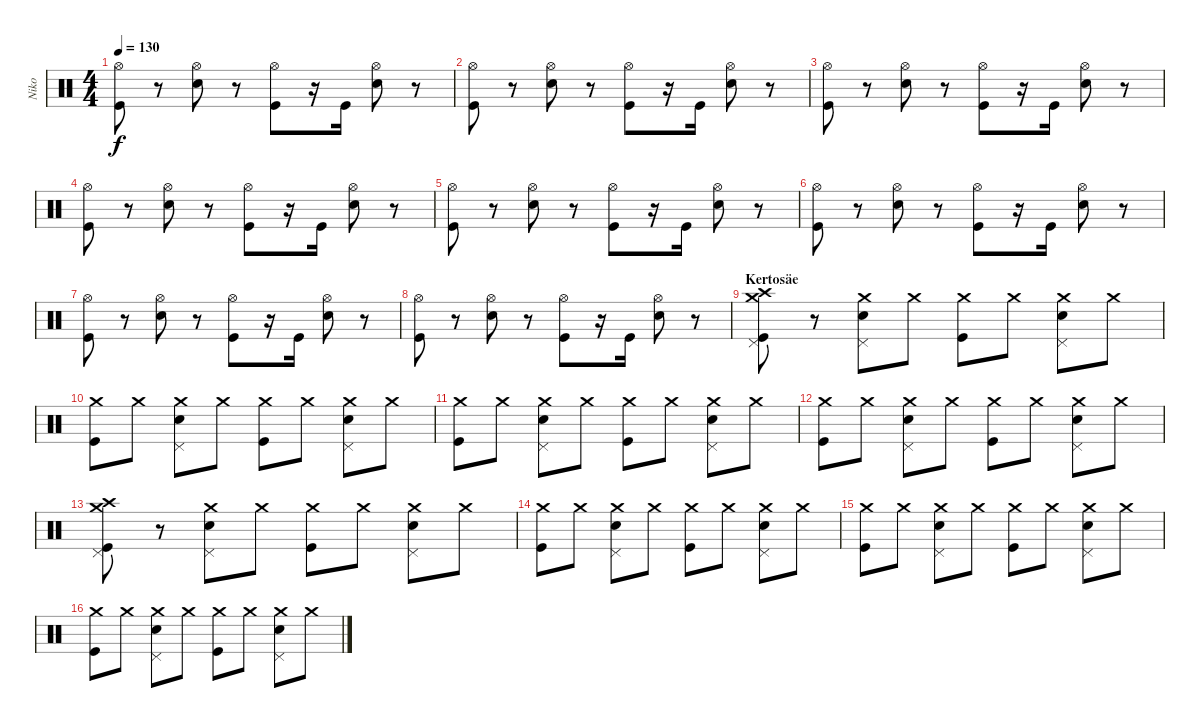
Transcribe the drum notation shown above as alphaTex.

\track ("Niko" "Niko") {instrument percussion}
\staff {score}
\articulation defaults
\ts (4 4)
\tempo 130
\clef neutral
\ks c
("Kick (hit)" "Hi-Hat (open)").8{dy f} r.8 ("Snare (hit) 2" "Hi-Hat (open)").8 r.8 ("Kick (hit)" "Hi-Hat (open)").8 r.16 "Kick (hit)".16 ("Snare (hit) 2" "Hi-Hat (open)").8 r.8 |
("Kick (hit)" "Hi-Hat (open)").8 r.8 ("Snare (hit) 2" "Hi-Hat (open)").8 r.8 ("Kick (hit)" "Hi-Hat (open)").8 r.16 "Kick (hit)".16 ("Snare (hit) 2" "Hi-Hat (open)").8 r.8 |
("Kick (hit)" "Hi-Hat (open)").8 r.8 ("Snare (hit) 2" "Hi-Hat (open)").8 r.8 ("Kick (hit)" "Hi-Hat (open)").8 r.16 "Kick (hit)".16 ("Snare (hit) 2" "Hi-Hat (open)").8 r.8 |
("Kick (hit)" "Hi-Hat (open)").8 r.8 ("Snare (hit) 2" "Hi-Hat (open)").8 r.8 ("Kick (hit)" "Hi-Hat (open)").8 r.16 "Kick (hit)".16 ("Snare (hit) 2" "Hi-Hat (open)").8 r.8 |
("Kick (hit)" "Hi-Hat (open)").8 r.8 ("Snare (hit) 2" "Hi-Hat (open)").8 r.8 ("Kick (hit)" "Hi-Hat (open)").8 r.16 "Kick (hit)".16 ("Snare (hit) 2" "Hi-Hat (open)").8 r.8 |
("Kick (hit)" "Hi-Hat (open)").8 r.8 ("Snare (hit) 2" "Hi-Hat (open)").8 r.8 ("Kick (hit)" "Hi-Hat (open)").8 r.16 "Kick (hit)".16 ("Snare (hit) 2" "Hi-Hat (open)").8 r.8 |
("Kick (hit)" "Hi-Hat (open)").8 r.8 ("Snare (hit) 2" "Hi-Hat (open)").8 r.8 ("Kick (hit)" "Hi-Hat (open)").8 r.16 "Kick (hit)".16 ("Snare (hit) 2" "Hi-Hat (open)").8 r.8 |
("Kick (hit)" "Hi-Hat (open)").8 r.8 ("Snare (hit) 2" "Hi-Hat (open)").8 r.8 ("Kick (hit)" "Hi-Hat (open)").8 r.16 "Kick (hit)".16 ("Snare (hit) 2" "Hi-Hat (open)").8 r.8 |
\section ("" "Kertosäe")
("Kick (hit)" "Crash medium (hit)" "Pedal Hi-Hat (hit)" "Crash high (hit)").8 r.8 ("Snare (hit) 2" "Crash medium (hit)" "Pedal Hi-Hat (hit)").8 "Crash medium (hit)".8 ("Kick (hit)" "Crash medium (hit)").8 "Crash medium (hit)".8 ("Snare (hit) 2" "Crash medium (hit)" "Pedal Hi-Hat (hit)").8 "Crash medium (hit)".8 |
("Kick (hit)" "Crash medium (hit)").8 "Crash medium (hit)".8 ("Snare (hit) 2" "Crash medium (hit)" "Pedal Hi-Hat (hit)").8 "Crash medium (hit)".8 ("Kick (hit)" "Crash medium (hit)").8 "Crash medium (hit)".8 ("Snare (hit) 2" "Crash medium (hit)" "Pedal Hi-Hat (hit)").8 "Crash medium (hit)".8 |
("Kick (hit)" "Crash medium (hit)").8 "Crash medium (hit)".8 ("Snare (hit) 2" "Crash medium (hit)" "Pedal Hi-Hat (hit)").8 "Crash medium (hit)".8 ("Kick (hit)" "Crash medium (hit)").8 "Crash medium (hit)".8 ("Snare (hit) 2" "Crash medium (hit)" "Pedal Hi-Hat (hit)").8 "Crash medium (hit)".8 |
("Kick (hit)" "Crash medium (hit)").8 "Crash medium (hit)".8 ("Snare (hit) 2" "Crash medium (hit)" "Pedal Hi-Hat (hit)").8 "Crash medium (hit)".8 ("Kick (hit)" "Crash medium (hit)").8 "Crash medium (hit)".8 ("Snare (hit) 2" "Crash medium (hit)" "Pedal Hi-Hat (hit)").8 "Crash medium (hit)".8 |
("Kick (hit)" "Crash medium (hit)" "Pedal Hi-Hat (hit)" "Crash high (hit)").8 r.8 ("Snare (hit) 2" "Crash medium (hit)" "Pedal Hi-Hat (hit)").8 "Crash medium (hit)".8 ("Kick (hit)" "Crash medium (hit)").8 "Crash medium (hit)".8 ("Snare (hit) 2" "Crash medium (hit)" "Pedal Hi-Hat (hit)").8 "Crash medium (hit)".8 |
("Kick (hit)" "Crash medium (hit)").8 "Crash medium (hit)".8 ("Snare (hit) 2" "Crash medium (hit)" "Pedal Hi-Hat (hit)").8 "Crash medium (hit)".8 ("Kick (hit)" "Crash medium (hit)").8 "Crash medium (hit)".8 ("Snare (hit) 2" "Crash medium (hit)" "Pedal Hi-Hat (hit)").8 "Crash medium (hit)".8 |
("Kick (hit)" "Crash medium (hit)").8 "Crash medium (hit)".8 ("Snare (hit) 2" "Crash medium (hit)" "Pedal Hi-Hat (hit)").8 "Crash medium (hit)".8 ("Kick (hit)" "Crash medium (hit)").8 "Crash medium (hit)".8 ("Snare (hit) 2" "Crash medium (hit)" "Pedal Hi-Hat (hit)").8 "Crash medium (hit)".8 |
("Kick (hit)" "Crash medium (hit)").8 "Crash medium (hit)".8 ("Snare (hit) 2" "Crash medium (hit)" "Pedal Hi-Hat (hit)").8 "Crash medium (hit)".8 ("Kick (hit)" "Crash medium (hit)").8 "Crash medium (hit)".8 ("Snare (hit) 2" "Crash medium (hit)" "Pedal Hi-Hat (hit)").8 "Crash medium (hit)".8
